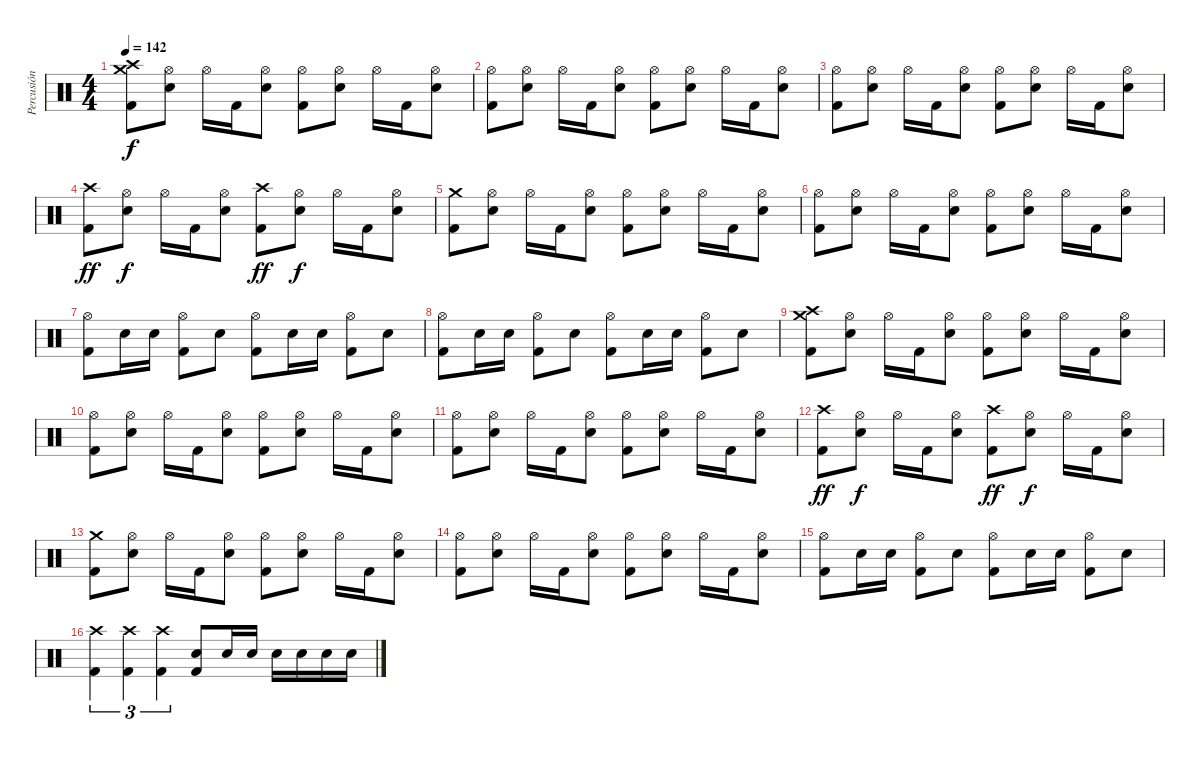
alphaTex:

\track ("Percusión" "Percusión") {instrument percussion}
\staff {score}
\articulation defaults
\ts (4 4)
\section ("" "")
\tempo 142
\clef neutral
\ks c
("Crash high (hit)" "Crash medium (hit)" "Kick (hit) 2").8{dy f} ("Hi-Hat (open)" "Electric Snare (hit)").8 "Hi-Hat (open)".16 "Kick (hit) 2".16 ("Hi-Hat (open)" "Electric Snare (hit)").8 ("Hi-Hat (open)" "Kick (hit) 2").8 ("Hi-Hat (open)" "Electric Snare (hit)").8 "Hi-Hat (open)".16 "Kick (hit) 2".16 ("Hi-Hat (open)" "Electric Snare (hit)").8 |
("Hi-Hat (open)" "Kick (hit) 2").8 ("Hi-Hat (open)" "Electric Snare (hit)").8 "Hi-Hat (open)".16 "Kick (hit) 2".16 ("Hi-Hat (open)" "Electric Snare (hit)").8 ("Hi-Hat (open)" "Kick (hit) 2").8 ("Hi-Hat (open)" "Electric Snare (hit)").8 "Hi-Hat (open)".16 "Kick (hit) 2".16 ("Hi-Hat (open)" "Electric Snare (hit)").8 |
("Hi-Hat (open)" "Kick (hit) 2").8 ("Hi-Hat (open)" "Electric Snare (hit)").8 "Hi-Hat (open)".16 "Kick (hit) 2".16 ("Hi-Hat (open)" "Electric Snare (hit)").8 ("Hi-Hat (open)" "Kick (hit) 2").8 ("Hi-Hat (open)" "Electric Snare (hit)").8 "Hi-Hat (open)".16 "Kick (hit) 2".16 ("Hi-Hat (open)" "Electric Snare (hit)").8 |
("Crash high (hit)" "Kick (hit) 2").8{dy ff} ("Hi-Hat (open)" "Electric Snare (hit)").8{dy f} "Hi-Hat (open)".16 "Kick (hit) 2".16 ("Hi-Hat (open)" "Electric Snare (hit)").8 ("Crash high (hit)" "Kick (hit) 2").8{dy ff} ("Hi-Hat (open)" "Electric Snare (hit)").8{dy f} "Hi-Hat (open)".16 "Kick (hit) 2".16 ("Hi-Hat (open)" "Electric Snare (hit)").8 |
("Crash medium (hit)" "Kick (hit) 2").8 ("Hi-Hat (open)" "Electric Snare (hit)").8 "Hi-Hat (open)".16 "Kick (hit) 2".16 ("Hi-Hat (open)" "Electric Snare (hit)").8 ("Hi-Hat (open)" "Kick (hit) 2").8 ("Hi-Hat (open)" "Electric Snare (hit)").8 "Hi-Hat (open)".16 "Kick (hit) 2".16 ("Hi-Hat (open)" "Electric Snare (hit)").8 |
("Hi-Hat (open)" "Kick (hit) 2").8 ("Hi-Hat (open)" "Electric Snare (hit)").8 "Hi-Hat (open)".16 "Kick (hit) 2".16 ("Hi-Hat (open)" "Electric Snare (hit)").8 ("Hi-Hat (open)" "Kick (hit) 2").8 ("Hi-Hat (open)" "Electric Snare (hit)").8 "Hi-Hat (open)".16 "Kick (hit) 2".16 ("Hi-Hat (open)" "Electric Snare (hit)").8 |
("Hi-Hat (open)" "Kick (hit) 2").8 "Electric Snare (hit)".16 "Electric Snare (hit)".16 ("Hi-Hat (open)" "Kick (hit) 2").8 "Electric Snare (hit)".8 ("Hi-Hat (open)" "Kick (hit) 2").8 "Electric Snare (hit)".16 "Electric Snare (hit)".16 ("Hi-Hat (open)" "Kick (hit) 2").8 "Electric Snare (hit)".8 |
("Hi-Hat (open)" "Kick (hit) 2").8 "Electric Snare (hit)".16 "Electric Snare (hit)".16 ("Hi-Hat (open)" "Kick (hit) 2").8 "Electric Snare (hit)".8 ("Hi-Hat (open)" "Kick (hit) 2").8 "Electric Snare (hit)".16 "Electric Snare (hit)".16 ("Hi-Hat (open)" "Kick (hit) 2").8 "Electric Snare (hit)".8 |
("Crash high (hit)" "Crash medium (hit)" "Kick (hit) 2").8 ("Hi-Hat (open)" "Electric Snare (hit)").8 "Hi-Hat (open)".16 "Kick (hit) 2".16 ("Hi-Hat (open)" "Electric Snare (hit)").8 ("Hi-Hat (open)" "Kick (hit) 2").8 ("Hi-Hat (open)" "Electric Snare (hit)").8 "Hi-Hat (open)".16 "Kick (hit) 2".16 ("Hi-Hat (open)" "Electric Snare (hit)").8 |
("Hi-Hat (open)" "Kick (hit) 2").8 ("Hi-Hat (open)" "Electric Snare (hit)").8 "Hi-Hat (open)".16 "Kick (hit) 2".16 ("Hi-Hat (open)" "Electric Snare (hit)").8 ("Hi-Hat (open)" "Kick (hit) 2").8 ("Hi-Hat (open)" "Electric Snare (hit)").8 "Hi-Hat (open)".16 "Kick (hit) 2".16 ("Hi-Hat (open)" "Electric Snare (hit)").8 |
("Hi-Hat (open)" "Kick (hit) 2").8 ("Hi-Hat (open)" "Electric Snare (hit)").8 "Hi-Hat (open)".16 "Kick (hit) 2".16 ("Hi-Hat (open)" "Electric Snare (hit)").8 ("Hi-Hat (open)" "Kick (hit) 2").8 ("Hi-Hat (open)" "Electric Snare (hit)").8 "Hi-Hat (open)".16 "Kick (hit) 2".16 ("Hi-Hat (open)" "Electric Snare (hit)").8 |
("Crash high (hit)" "Kick (hit) 2").8{dy ff} ("Hi-Hat (open)" "Electric Snare (hit)").8{dy f} "Hi-Hat (open)".16 "Kick (hit) 2".16 ("Hi-Hat (open)" "Electric Snare (hit)").8 ("Crash high (hit)" "Kick (hit) 2").8{dy ff} ("Hi-Hat (open)" "Electric Snare (hit)").8{dy f} "Hi-Hat (open)".16 "Kick (hit) 2".16 ("Hi-Hat (open)" "Electric Snare (hit)").8 |
("Crash medium (hit)" "Kick (hit) 2").8 ("Hi-Hat (open)" "Electric Snare (hit)").8 "Hi-Hat (open)".16 "Kick (hit) 2".16 ("Hi-Hat (open)" "Electric Snare (hit)").8 ("Hi-Hat (open)" "Kick (hit) 2").8 ("Hi-Hat (open)" "Electric Snare (hit)").8 "Hi-Hat (open)".16 "Kick (hit) 2".16 ("Hi-Hat (open)" "Electric Snare (hit)").8 |
("Hi-Hat (open)" "Kick (hit) 2").8 ("Hi-Hat (open)" "Electric Snare (hit)").8 "Hi-Hat (open)".16 "Kick (hit) 2".16 ("Hi-Hat (open)" "Electric Snare (hit)").8 ("Hi-Hat (open)" "Kick (hit) 2").8 ("Hi-Hat (open)" "Electric Snare (hit)").8 "Hi-Hat (open)".16 "Kick (hit) 2".16 ("Hi-Hat (open)" "Electric Snare (hit)").8 |
("Hi-Hat (open)" "Kick (hit) 2").8 "Electric Snare (hit)".16 "Electric Snare (hit)".16 ("Hi-Hat (open)" "Kick (hit) 2").8 "Electric Snare (hit)".8 ("Hi-Hat (open)" "Kick (hit) 2").8 "Electric Snare (hit)".16 "Electric Snare (hit)".16 ("Hi-Hat (open)" "Kick (hit) 2").8 "Electric Snare (hit)".8 |
("Crash high (hit)" "Kick (hit) 2").4{tu (3 2)} ("Crash high (hit)" "Kick (hit) 2").4{tu (3 2)} ("Crash high (hit)" "Kick (hit) 2").4{tu (3 2)} ("Electric Snare (hit)" "Kick (hit) 2").8 "Electric Snare (hit)".16 "Electric Snare (hit)".16 "Electric Snare (hit)".16 "Electric Snare (hit)".16 "Electric Snare (hit)".16 "Electric Snare (hit)".16
